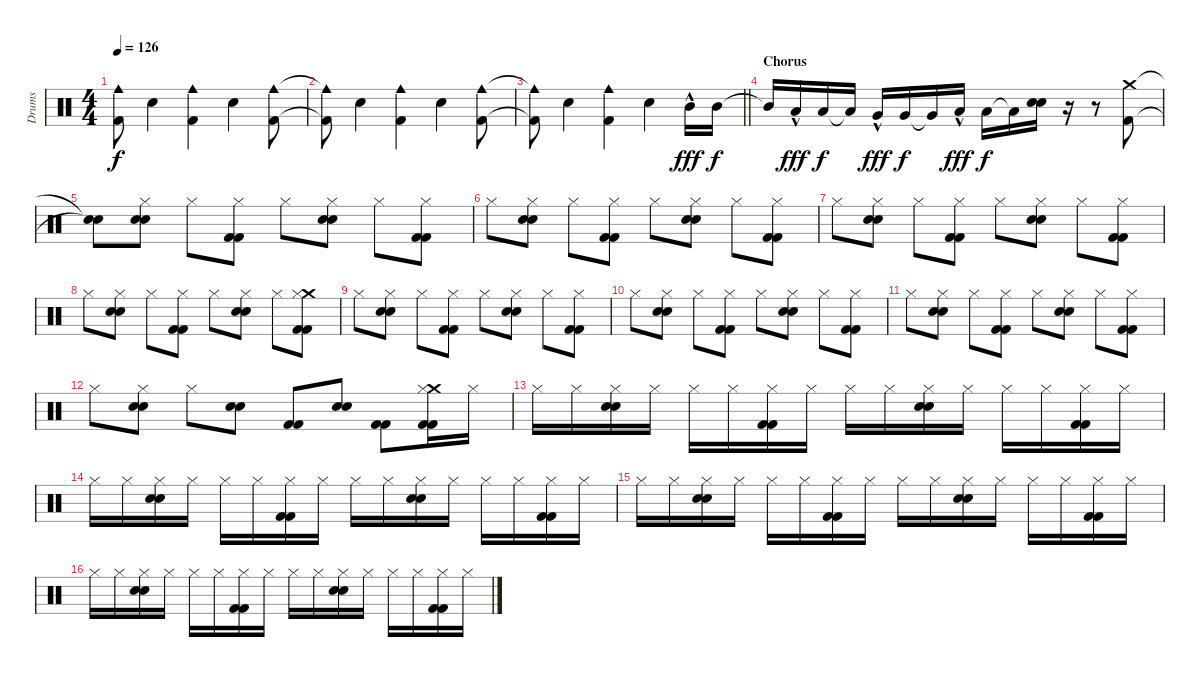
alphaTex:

\track ("Drums" "Drums") {instrument percussion}
\staff {score}
\articulation defaults
\ts (4 4)
\tempo 126
\clef neutral
\ks c
("Cowbell medium (hit)"{t} "Kick (hit) 2"{t}).8{dy f} "Electric Snare (hit)".4 ("Cowbell medium (hit)" "Kick (hit) 2").4 "Electric Snare (hit)".4 ("Cowbell medium (hit)" "Kick (hit) 2").8 |
("Cowbell medium (hit)"{t} "Kick (hit) 2"{t}).8 "Electric Snare (hit)".4 ("Cowbell medium (hit)" "Kick (hit) 2").4 "Electric Snare (hit)".4 ("Cowbell medium (hit)" "Kick (hit) 2").8 |
\barLineRight lightlight
("Cowbell medium (hit)"{t} "Kick (hit) 2"{t}).8 "Electric Snare (hit)".4 ("Cowbell medium (hit)" "Kick (hit) 2").4 "Electric Snare (hit)".4 "Mid Tom (hit)"{hac}.16{dy fff} "Mid Tom (hit)".16{dy f} |
\section ("" "Chorus")
"Mid Tom (hit)"{t}.16 "Low Tom (hit)"{hac}.16{dy fff} "Low Tom (hit)".16{dy f} "Low Tom (hit)"{t}.16 "Very Low Tom (hit)"{hac}.16{dy fff} "Very Low Tom (hit)".16{dy f} "Very Low Tom (hit)"{t}.16 "Low Floor Tom (hit)"{hac}.16{dy fff} "Low Floor Tom (hit)".16{dy f} "Low Floor Tom (hit)"{t}.16 ("Hand Clap (hit)" "Hand Clap (hit)").16 r.16 r.8 ("Crash medium (hit)" "Kick (hit) 2").8 |
("Snare (hit)"{t} "Snare (hit)"{t}).8 ("Electric Snare (hit)" "Hi-Hat (closed)" "Electric Snare (hit)").8 "Hi-Hat (closed)".8 ("Kick (hit) 2" "Hi-Hat (closed)" "Kick (hit) 2").8 "Hi-Hat (closed)".8 ("Electric Snare (hit)" "Hi-Hat (closed)" "Electric Snare (hit)").8 "Hi-Hat (closed)".8 ("Kick (hit) 2" "Hi-Hat (closed)" "Kick (hit) 2").8 |
"Hi-Hat (closed)".8 ("Electric Snare (hit)" "Hi-Hat (closed)" "Electric Snare (hit)").8 "Hi-Hat (closed)".8 ("Kick (hit) 2" "Hi-Hat (closed)" "Kick (hit) 2").8 "Hi-Hat (closed)".8 ("Electric Snare (hit)" "Hi-Hat (closed)" "Electric Snare (hit)").8 "Hi-Hat (closed)".8 ("Kick (hit) 2" "Hi-Hat (closed)" "Kick (hit) 2").8 |
"Hi-Hat (closed)".8 ("Electric Snare (hit)" "Hi-Hat (closed)" "Electric Snare (hit)").8 "Hi-Hat (closed)".8 ("Kick (hit) 2" "Hi-Hat (closed)" "Kick (hit) 2").8 "Hi-Hat (closed)".8 ("Electric Snare (hit)" "Hi-Hat (closed)" "Electric Snare (hit)").8 "Hi-Hat (closed)".8 ("Kick (hit) 2" "Hi-Hat (closed)" "Kick (hit) 2").8 |
"Hi-Hat (closed)".8 ("Electric Snare (hit)" "Hi-Hat (closed)" "Electric Snare (hit)").8 "Hi-Hat (closed)".8 ("Kick (hit) 2" "Hi-Hat (closed)" "Kick (hit) 2").8 "Hi-Hat (closed)".8 ("Electric Snare (hit)" "Hi-Hat (closed)" "Electric Snare (hit)").8 "Hi-Hat (closed)".8 ("Crash medium (hit)" "Kick (hit) 2" "Hi-Hat (closed)" "Kick (hit) 2").8 |
"Hi-Hat (closed)".8 ("Electric Snare (hit)" "Hi-Hat (closed)" "Electric Snare (hit)").8 "Hi-Hat (closed)".8 ("Kick (hit) 2" "Hi-Hat (closed)" "Kick (hit) 2").8 "Hi-Hat (closed)".8 ("Electric Snare (hit)" "Hi-Hat (closed)" "Electric Snare (hit)").8 "Hi-Hat (closed)".8 ("Kick (hit) 2" "Hi-Hat (closed)" "Kick (hit) 2").8 |
"Hi-Hat (closed)".8 ("Electric Snare (hit)" "Hi-Hat (closed)" "Electric Snare (hit)").8 "Hi-Hat (closed)".8 ("Kick (hit) 2" "Hi-Hat (closed)" "Kick (hit) 2").8 "Hi-Hat (closed)".8 ("Electric Snare (hit)" "Hi-Hat (closed)" "Electric Snare (hit)").8 "Hi-Hat (closed)".8 ("Kick (hit) 2" "Hi-Hat (closed)" "Kick (hit) 2").8 |
"Hi-Hat (closed)".8 ("Electric Snare (hit)" "Hi-Hat (closed)" "Electric Snare (hit)").8 "Hi-Hat (closed)".8 ("Kick (hit) 2" "Hi-Hat (closed)" "Kick (hit) 2").8 "Hi-Hat (closed)".8 ("Electric Snare (hit)" "Hi-Hat (closed)" "Electric Snare (hit)").8 "Hi-Hat (closed)".8 ("Kick (hit) 2" "Hi-Hat (closed)" "Kick (hit) 2").8 |
"Hi-Hat (closed)".8 ("Electric Snare (hit)" "Hi-Hat (closed)" "Electric Snare (hit)").8 "Hi-Hat (closed)".8 ("Electric Snare (hit)" "Electric Snare (hit)").8 ("Kick (hit) 2" "Kick (hit) 2").8 ("Electric Snare (hit)" "Electric Snare (hit)").8 ("Kick (hit) 2" "Kick (hit) 2").8 ("Crash medium (hit)" "Kick (hit) 2" "Hi-Hat (closed)" "Kick (hit) 2").16 "Hi-Hat (closed)".16 |
"Hi-Hat (closed)".16 "Hi-Hat (closed)".16 ("Electric Snare (hit)" "Hi-Hat (closed)" "Electric Snare (hit)").16 "Hi-Hat (closed)".16 "Hi-Hat (closed)".16 "Hi-Hat (closed)".16 ("Kick (hit) 2" "Hi-Hat (closed)" "Kick (hit) 2").16 "Hi-Hat (closed)".16 "Hi-Hat (closed)".16 "Hi-Hat (closed)".16 ("Electric Snare (hit)" "Hi-Hat (closed)" "Electric Snare (hit)").16 "Hi-Hat (closed)".16 "Hi-Hat (closed)".16 "Hi-Hat (closed)".16 ("Kick (hit) 2" "Hi-Hat (closed)" "Kick (hit) 2").16 "Hi-Hat (closed)".16 |
"Hi-Hat (closed)".16 "Hi-Hat (closed)".16 ("Electric Snare (hit)" "Hi-Hat (closed)" "Electric Snare (hit)").16 "Hi-Hat (closed)".16 "Hi-Hat (closed)".16 "Hi-Hat (closed)".16 ("Kick (hit) 2" "Hi-Hat (closed)" "Kick (hit) 2").16 "Hi-Hat (closed)".16 "Hi-Hat (closed)".16 "Hi-Hat (closed)".16 ("Electric Snare (hit)" "Hi-Hat (closed)" "Electric Snare (hit)").16 "Hi-Hat (closed)".16 "Hi-Hat (closed)".16 "Hi-Hat (closed)".16 ("Kick (hit) 2" "Hi-Hat (closed)" "Kick (hit) 2").16 "Hi-Hat (closed)".16 |
"Hi-Hat (closed)".16 "Hi-Hat (closed)".16 ("Electric Snare (hit)" "Hi-Hat (closed)" "Electric Snare (hit)").16 "Hi-Hat (closed)".16 "Hi-Hat (closed)".16 "Hi-Hat (closed)".16 ("Kick (hit) 2" "Hi-Hat (closed)" "Kick (hit) 2").16 "Hi-Hat (closed)".16 "Hi-Hat (closed)".16 "Hi-Hat (closed)".16 ("Electric Snare (hit)" "Hi-Hat (closed)" "Electric Snare (hit)").16 "Hi-Hat (closed)".16 "Hi-Hat (closed)".16 "Hi-Hat (closed)".16 ("Kick (hit) 2" "Hi-Hat (closed)" "Kick (hit) 2").16 "Hi-Hat (closed)".16 |
"Hi-Hat (closed)".16 "Hi-Hat (closed)".16 ("Electric Snare (hit)" "Hi-Hat (closed)" "Electric Snare (hit)").16 "Hi-Hat (closed)".16 "Hi-Hat (closed)".16 "Hi-Hat (closed)".16 ("Kick (hit) 2" "Hi-Hat (closed)" "Kick (hit) 2").16 "Hi-Hat (closed)".16 "Hi-Hat (closed)".16 "Hi-Hat (closed)".16 ("Electric Snare (hit)" "Hi-Hat (closed)" "Electric Snare (hit)").16 "Hi-Hat (closed)".16 "Hi-Hat (closed)".16 "Hi-Hat (closed)".16 ("Kick (hit) 2" "Hi-Hat (closed)" "Kick (hit) 2").16 "Hi-Hat (closed)".16
